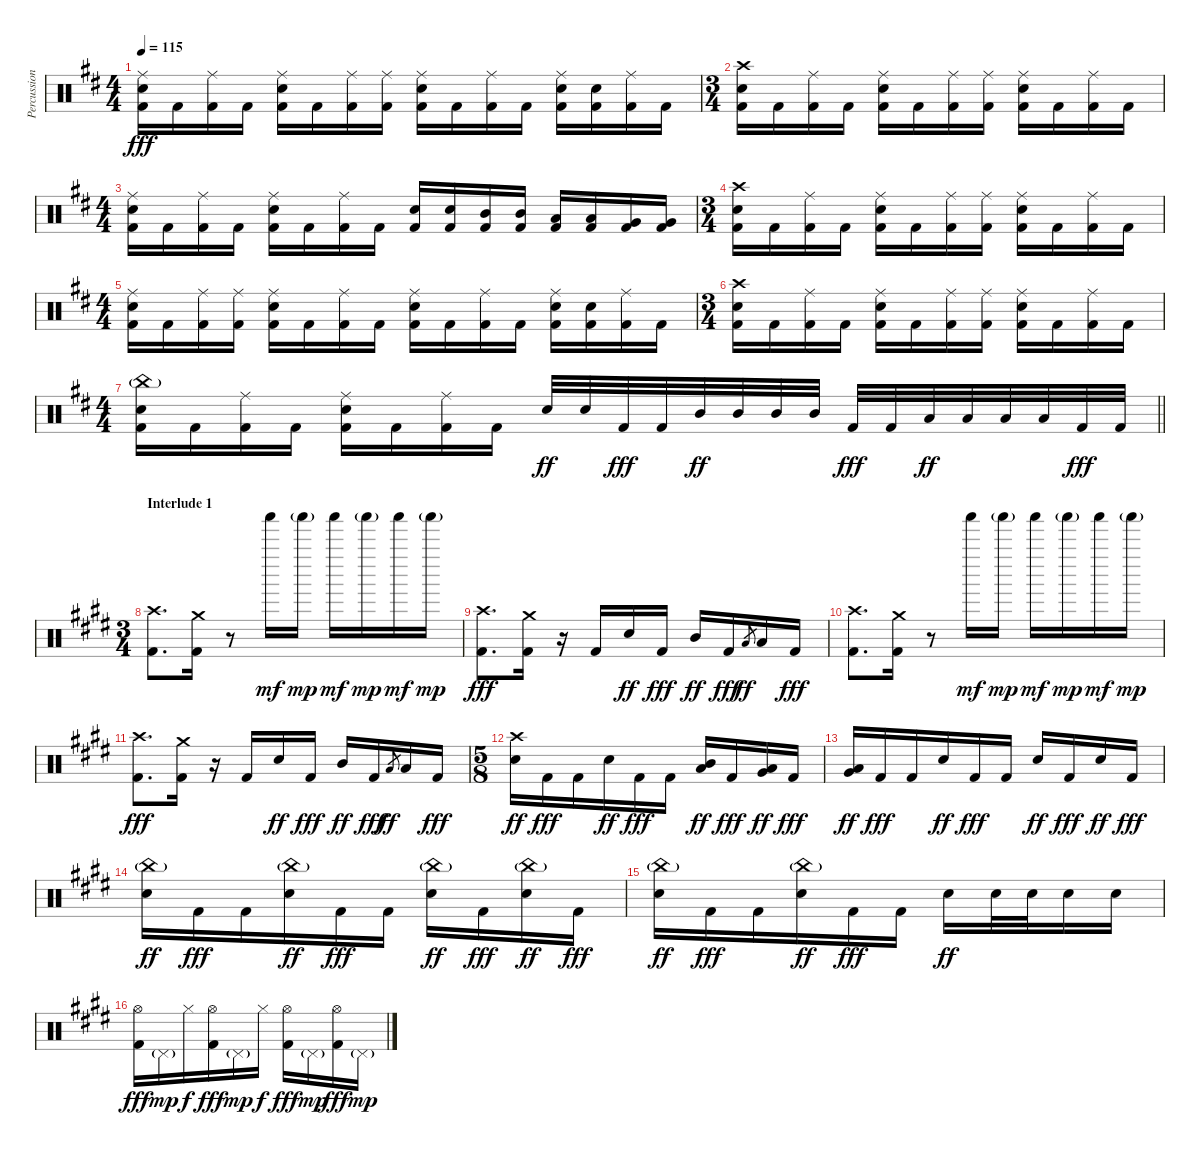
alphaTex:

\track ("Percussion" "Percussion") {instrument percussion}
\staff {score}
\articulation defaults
\ts (4 4)
\tempo 115
\clef neutral
\ks bminor
("Ride (middle)" "Electric Snare (hit)" "Kick (hit) 2").16{dy fff} "Kick (hit) 2".16 ("Ride (middle)" "Kick (hit) 2").16 "Kick (hit) 2".16 ("Ride (middle)" "Electric Snare (hit)" "Kick (hit) 2").16 "Kick (hit) 2".16 ("Ride (middle)" "Kick (hit) 2").16 ("Ride (middle)" "Kick (hit) 2").16 ("Ride (middle)" "Electric Snare (hit)" "Kick (hit) 2").16 "Kick (hit) 2".16 ("Ride (middle)" "Kick (hit) 2").16 "Kick (hit) 2".16 ("Ride (middle)" "Electric Snare (hit)" "Kick (hit) 2").16 ("Electric Snare (hit)" "Kick (hit) 2").16 ("Ride (middle)" "Kick (hit) 2").16 "Kick (hit) 2".16 |
\ts (3 4)
("Crash high (hit)" "Electric Snare (hit)" "Kick (hit) 2").16 "Kick (hit) 2".16 ("Ride (middle)" "Kick (hit) 2").16 "Kick (hit) 2".16 ("Ride (middle)" "Electric Snare (hit)" "Kick (hit) 2").16 "Kick (hit) 2".16 ("Ride (middle)" "Kick (hit) 2").16 ("Ride (middle)" "Kick (hit) 2").16 ("Ride (middle)" "Electric Snare (hit)" "Kick (hit) 2").16 "Kick (hit) 2".16 ("Ride (middle)" "Kick (hit) 2").16 "Kick (hit) 2".16 |
\ts (4 4)
("Ride (middle)" "Electric Snare (hit)" "Kick (hit) 2").16 "Kick (hit) 2".16 ("Ride (middle)" "Kick (hit) 2").16 "Kick (hit) 2".16 ("Ride (middle)" "Electric Snare (hit)" "Kick (hit) 2").16 "Kick (hit) 2".16 ("Ride (middle)" "Kick (hit) 2").16 "Kick (hit) 2".16 ("Electric Snare (hit)" "Kick (hit) 2").16 ("Electric Snare (hit)" "Kick (hit) 2").16 ("Mid Tom (hit)" "Kick (hit) 2").16 ("Mid Tom (hit)" "Kick (hit) 2").16 ("Low Tom (hit)" "Kick (hit) 2").16 ("Low Tom (hit)" "Kick (hit) 2").16 ("Very Low Tom (hit)" "Kick (hit) 2").16 ("Very Low Tom (hit)" "Kick (hit) 2").16 |
\ts (3 4)
("Crash high (hit)" "Electric Snare (hit)" "Kick (hit) 2").16 "Kick (hit) 2".16 ("Ride (middle)" "Kick (hit) 2").16 "Kick (hit) 2".16 ("Ride (middle)" "Electric Snare (hit)" "Kick (hit) 2").16 "Kick (hit) 2".16 ("Ride (middle)" "Kick (hit) 2").16 ("Ride (middle)" "Kick (hit) 2").16 ("Ride (middle)" "Electric Snare (hit)" "Kick (hit) 2").16 "Kick (hit) 2".16 ("Ride (middle)" "Kick (hit) 2").16 "Kick (hit) 2".16 |
\ts (4 4)
("Ride (middle)" "Electric Snare (hit)" "Kick (hit) 2").16 "Kick (hit) 2".16 ("Ride (middle)" "Kick (hit) 2").16 ("Ride (middle)" "Kick (hit) 2").16 ("Ride (middle)" "Electric Snare (hit)" "Kick (hit) 2").16 "Kick (hit) 2".16 ("Ride (middle)" "Kick (hit) 2").16 "Kick (hit) 2".16 ("Ride (middle)" "Electric Snare (hit)" "Kick (hit) 2").16 "Kick (hit) 2".16 ("Ride (middle)" "Kick (hit) 2").16 "Kick (hit) 2".16 ("Ride (middle)" "Electric Snare (hit)" "Kick (hit) 2").16 ("Electric Snare (hit)" "Kick (hit) 2").16 ("Ride (middle)" "Kick (hit) 2").16 "Kick (hit) 2".16 |
\ts (3 4)
("Crash high (hit)" "Electric Snare (hit)" "Kick (hit) 2").16 "Kick (hit) 2".16 ("Ride (middle)" "Kick (hit) 2").16 "Kick (hit) 2".16 ("Ride (middle)" "Electric Snare (hit)" "Kick (hit) 2").16 "Kick (hit) 2".16 ("Ride (middle)" "Kick (hit) 2").16 ("Ride (middle)" "Kick (hit) 2").16 ("Ride (middle)" "Electric Snare (hit)" "Kick (hit) 2").16 "Kick (hit) 2".16 ("Ride (middle)" "Kick (hit) 2").16 "Kick (hit) 2".16 |
\ts (4 4)
\barLineRight lightlight
("China (hit)"{g} "Electric Snare (hit)" "Kick (hit) 2").16 "Kick (hit) 2".16 ("Ride (middle)" "Kick (hit) 2").16 "Kick (hit) 2".16 ("Ride (middle)" "Electric Snare (hit)" "Kick (hit) 2").16 "Kick (hit) 2".16 ("Ride (middle)" "Kick (hit) 2").16 "Kick (hit) 2".16 "Electric Snare (hit)".32{dy ff} "Electric Snare (hit)".32 "Kick (hit) 2".32{dy fff} "Kick (hit) 2".32 "Mid Tom (hit)".32{dy ff} "Mid Tom (hit)".32 "Mid Tom (hit)".32 "Mid Tom (hit)".32 "Kick (hit) 2".32{dy fff} "Kick (hit) 2".32 "Low Tom (hit)".32{dy ff} "Low Tom (hit)".32 "Low Tom (hit)".32 "Low Tom (hit)".32 "Kick (hit) 2".32{dy fff} "Kick (hit) 2".32 |
\ts (3 4)
\section ("" "Interlude 1")
\ks c#minor
("Crash high (hit)" "Kick (hit) 2").8{d} ("Crash medium (hit)" "Kick (hit) 2").16 r.8 "Shaker (hit)".16{dy mf} "Shaker (hit)"{g}.16{dy mp} "Shaker (hit)".16{dy mf} "Shaker (hit)"{g}.16{dy mp} "Shaker (hit)".16{dy mf} "Shaker (hit)"{g}.16{dy mp} |
("Crash high (hit)" "Kick (hit) 2").8{d dy fff} ("Crash medium (hit)" "Kick (hit) 2").16 r.16 "Kick (hit) 2".16 "Electric Snare (hit)".16{dy ff} "Kick (hit) 2".16{dy fff} "Mid Tom (hit)".16{dy ff} "Kick (hit) 2".16{dy fff} "Low Tom (hit)".8{gr dy ff} "Low Tom (hit)".16 "Kick (hit) 2".16{dy fff} |
("Crash high (hit)" "Kick (hit) 2").8{d} ("Crash medium (hit)" "Kick (hit) 2").16 r.8 "Shaker (hit)".16{dy mf} "Shaker (hit)"{g}.16{dy mp} "Shaker (hit)".16{dy mf} "Shaker (hit)"{g}.16{dy mp} "Shaker (hit)".16{dy mf} "Shaker (hit)"{g}.16{dy mp} |
("Crash high (hit)" "Kick (hit) 2").8{d dy fff} ("Crash medium (hit)" "Kick (hit) 2").16 r.16 "Kick (hit) 2".16 "Electric Snare (hit)".16{dy ff} "Kick (hit) 2".16{dy fff} "Mid Tom (hit)".16{dy ff} "Kick (hit) 2".16{dy fff} "Low Tom (hit)".8{gr dy ff} "Low Tom (hit)".16 "Kick (hit) 2".16{dy fff} |
\ts (5 8)
("Crash high (hit)" "Electric Snare (hit)").16{dy ff} "Kick (hit) 2".16{dy fff} "Kick (hit) 2".16 "Electric Snare (hit)".16{dy ff} "Kick (hit) 2".16{dy fff} "Kick (hit) 2".16 ("Mid Tom (hit)" "Low Tom (hit)").16{dy ff} "Kick (hit) 2".16{dy fff} ("Low Tom (hit)" "Very Low Tom (hit)").16{dy ff} "Kick (hit) 2".16{dy fff} |
("Low Tom (hit)" "Very Low Tom (hit)").16{dy ff} "Kick (hit) 2".16{dy fff} "Kick (hit) 2".16 "Electric Snare (hit)".16{dy ff} "Kick (hit) 2".16{dy fff} "Kick (hit) 2".16 "Electric Snare (hit)".16{dy ff} "Kick (hit) 2".16{dy fff} "Electric Snare (hit)".16{dy ff} "Kick (hit) 2".16{dy fff} |
("China (hit)"{g} "Electric Snare (hit)").16{dy ff} "Kick (hit) 2".16{dy fff} "Kick (hit) 2".16 ("China (hit)"{g} "Electric Snare (hit)").16{dy ff} "Kick (hit) 2".16{dy fff} "Kick (hit) 2".16 ("China (hit)"{g} "Electric Snare (hit)").16{dy ff} "Kick (hit) 2".16{dy fff} ("China (hit)"{g} "Electric Snare (hit)").16{dy ff} "Kick (hit) 2".16{dy fff} |
("China (hit)"{g} "Electric Snare (hit)").16{dy ff} "Kick (hit) 2".16{dy fff} "Kick (hit) 2".16 ("China (hit)"{g} "Electric Snare (hit)").16{dy ff} "Kick (hit) 2".16{dy fff} "Kick (hit) 2".16 "Electric Snare (hit)".16{dy ff} "Electric Snare (hit)".32 "Electric Snare (hit)".32 "Electric Snare (hit)".16 "Electric Snare (hit)".16 |
("Hi-Hat (open)" "Kick (hit) 2").16{dy fff} "Pedal Hi-Hat (hit)"{g}.16{dy mp} "Hi-Hat (closed)".16{dy f} ("Hi-Hat (open)" "Kick (hit) 2").16{dy fff} "Pedal Hi-Hat (hit)"{g}.16{dy mp} "Hi-Hat (closed)".16{dy f} ("Hi-Hat (open)" "Kick (hit) 2").16{dy fff} "Pedal Hi-Hat (hit)"{g}.16{dy mp} ("Hi-Hat (open)" "Kick (hit) 2").16{dy fff} "Pedal Hi-Hat (hit)"{g}.16{dy mp}
